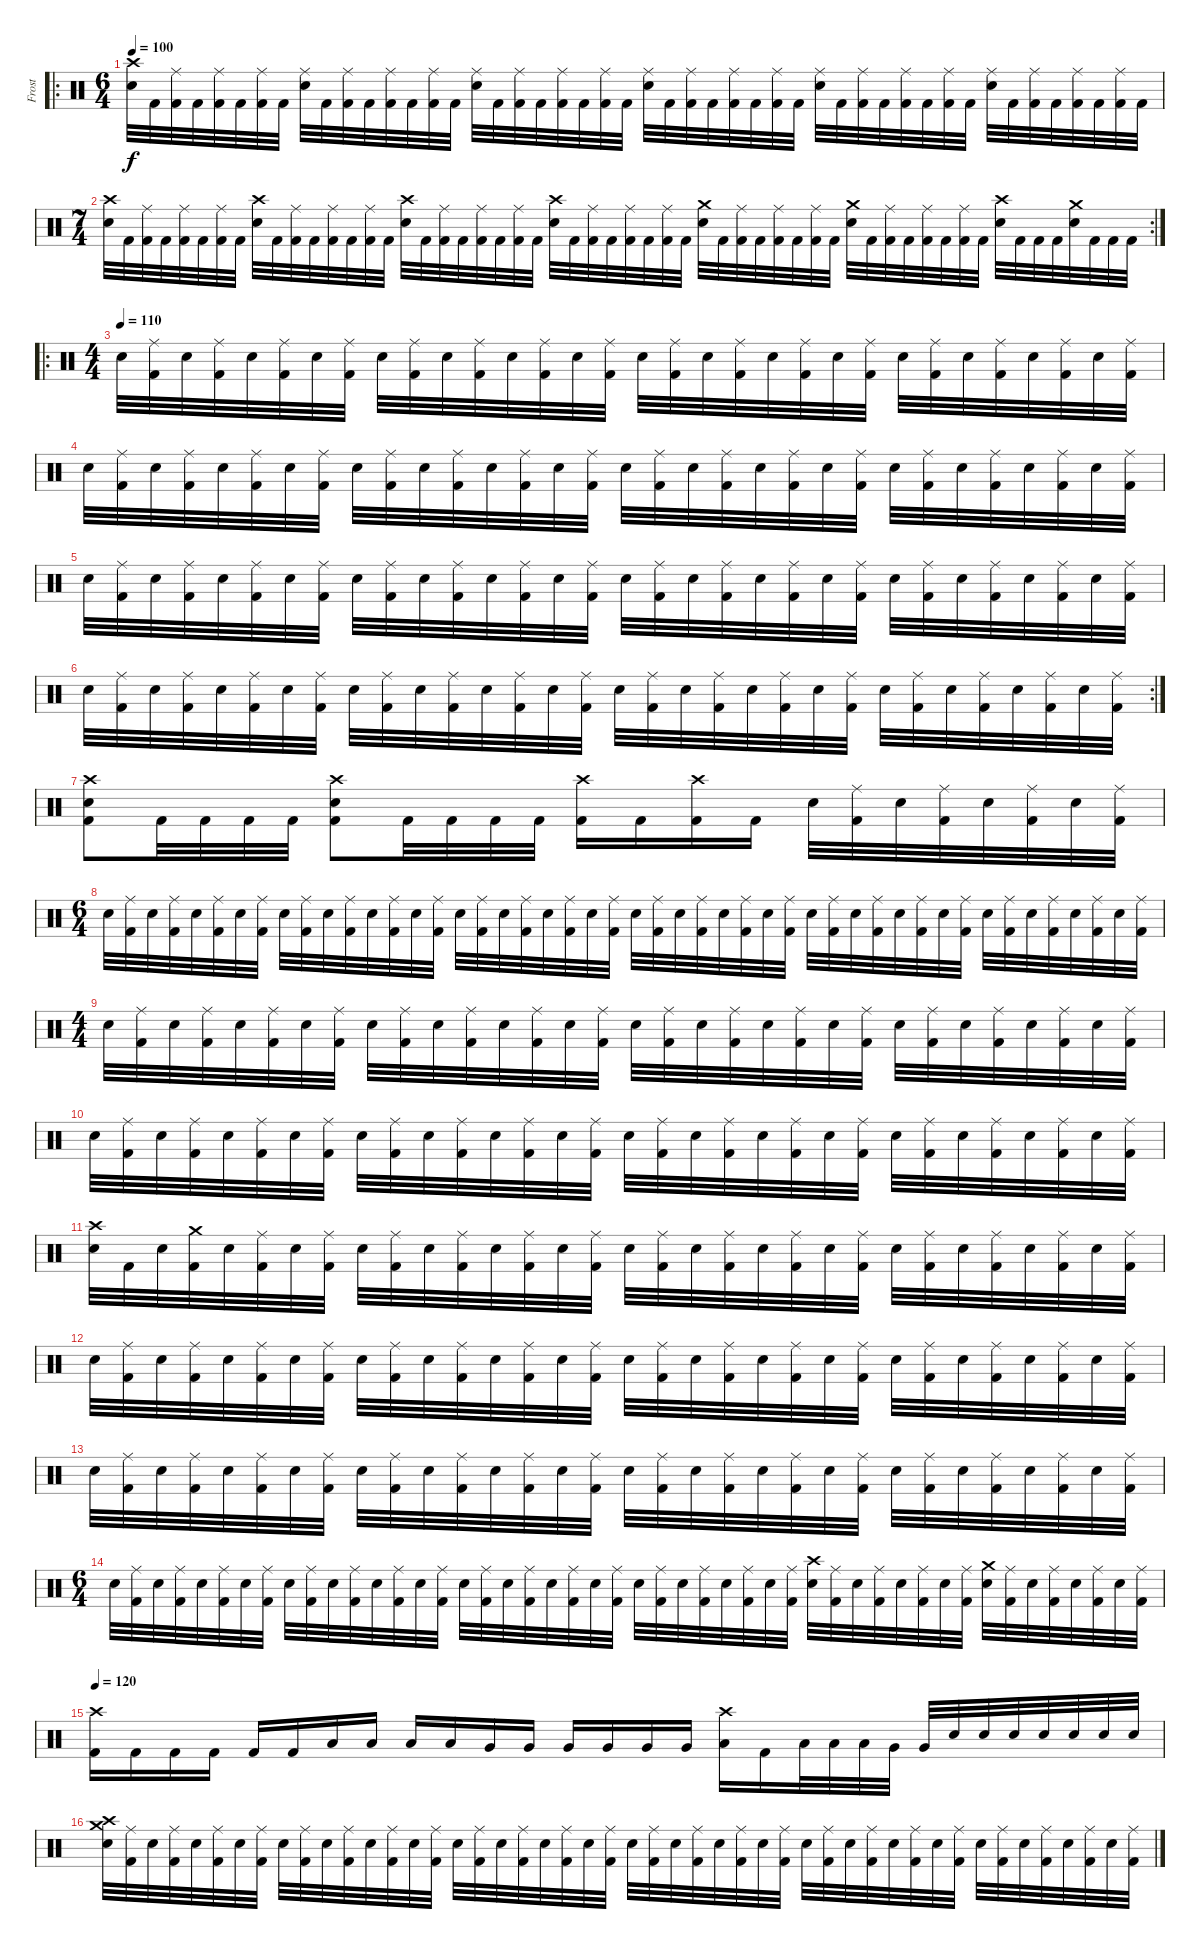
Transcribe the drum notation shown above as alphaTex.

\track ("Frost" "Frost") {instrument percussion}
\staff {score}
\articulation defaults
\ro
\ts (6 4)
\tempo 100
\clef neutral
\ks c
("Crash high (hit)" "Snare (hit) 2").32{dy f} "Kick (hit) 2".32 ("Ride (middle)" "Kick (hit) 2").32 "Kick (hit) 2".32 ("Ride (middle)" "Kick (hit) 2").32 "Kick (hit) 2".32 ("Ride (middle)" "Kick (hit) 2").32 "Kick (hit) 2".32 ("Ride (middle)" "Snare (hit) 2").32 "Kick (hit) 2".32 ("Ride (middle)" "Kick (hit) 2").32 "Kick (hit) 2".32 ("Ride (middle)" "Kick (hit) 2").32 "Kick (hit) 2".32 ("Ride (middle)" "Kick (hit) 2").32 "Kick (hit) 2".32 ("Ride (middle)" "Snare (hit) 2").32 "Kick (hit) 2".32 ("Ride (middle)" "Kick (hit) 2").32 "Kick (hit) 2".32 ("Ride (middle)" "Kick (hit) 2").32 "Kick (hit) 2".32 ("Ride (middle)" "Kick (hit) 2").32 "Kick (hit) 2".32 ("Ride (middle)" "Snare (hit) 2").32 "Kick (hit) 2".32 ("Ride (middle)" "Kick (hit) 2").32 "Kick (hit) 2".32 ("Ride (middle)" "Kick (hit) 2").32 "Kick (hit) 2".32 ("Ride (middle)" "Kick (hit) 2").32 "Kick (hit) 2".32 ("Ride (middle)" "Snare (hit) 2").32 "Kick (hit) 2".32 ("Ride (middle)" "Kick (hit) 2").32 "Kick (hit) 2".32 ("Ride (middle)" "Kick (hit) 2").32 "Kick (hit) 2".32 ("Ride (middle)" "Kick (hit) 2").32 "Kick (hit) 2".32 ("Ride (middle)" "Snare (hit) 2").32 "Kick (hit) 2".32 ("Ride (middle)" "Kick (hit) 2").32 "Kick (hit) 2".32 ("Ride (middle)" "Kick (hit) 2").32 "Kick (hit) 2".32 ("Ride (middle)" "Kick (hit) 2").32 "Kick (hit) 2".32 |
\rc 2
\ts (7 4)
("Crash high (hit)" "Snare (hit) 2").32 "Kick (hit) 2".32 ("Ride (middle)" "Kick (hit) 2").32 "Kick (hit) 2".32 ("Ride (middle)" "Kick (hit) 2").32 "Kick (hit) 2".32 ("Ride (middle)" "Kick (hit) 2").32 "Kick (hit) 2".32 ("Crash high (hit)" "Snare (hit) 2").32 "Kick (hit) 2".32 ("Ride (middle)" "Kick (hit) 2").32 "Kick (hit) 2".32 ("Ride (middle)" "Kick (hit) 2").32 "Kick (hit) 2".32 ("Ride (middle)" "Kick (hit) 2").32 "Kick (hit) 2".32 ("Crash high (hit)" "Snare (hit) 2").32 "Kick (hit) 2".32 ("Ride (middle)" "Kick (hit) 2").32 "Kick (hit) 2".32 ("Ride (middle)" "Kick (hit) 2").32 "Kick (hit) 2".32 ("Ride (middle)" "Kick (hit) 2").32 "Kick (hit) 2".32 ("Crash high (hit)" "Snare (hit) 2").32 "Kick (hit) 2".32 ("Ride (middle)" "Kick (hit) 2").32 "Kick (hit) 2".32 ("Ride (middle)" "Kick (hit) 2").32 "Kick (hit) 2".32 ("Ride (middle)" "Kick (hit) 2").32 "Kick (hit) 2".32 ("Crash medium (hit)" "Snare (hit) 2").32 "Kick (hit) 2".32 ("Ride (middle)" "Kick (hit) 2").32 "Kick (hit) 2".32 ("Ride (middle)" "Kick (hit) 2").32 "Kick (hit) 2".32 ("Ride (middle)" "Kick (hit) 2").32 "Kick (hit) 2".32 ("Crash medium (hit)" "Snare (hit) 2").32 "Kick (hit) 2".32 ("Ride (middle)" "Kick (hit) 2").32 "Kick (hit) 2".32 ("Ride (middle)" "Kick (hit) 2").32 "Kick (hit) 2".32 ("Ride (middle)" "Kick (hit) 2").32 "Kick (hit) 2".32 ("Crash high (hit)" "Snare (hit) 2").32 "Kick (hit) 2".32 "Kick (hit) 2".32 "Kick (hit) 2".32 ("Crash medium (hit)" "Snare (hit) 2").32 "Kick (hit) 2".32 "Kick (hit) 2".32 "Kick (hit) 2".32 |
\ro
\ts (4 4)
\tempo (110)
"Snare (hit) 2".32 ("Ride (middle)" "Kick (hit) 2").32 "Snare (hit) 2".32 ("Ride (middle)" "Kick (hit) 2").32 "Snare (hit) 2".32 ("Ride (middle)" "Kick (hit) 2").32 "Snare (hit) 2".32 ("Ride (middle)" "Kick (hit) 2").32 "Snare (hit) 2".32 ("Ride (middle)" "Kick (hit) 2").32 "Snare (hit) 2".32 ("Ride (middle)" "Kick (hit) 2").32 "Snare (hit) 2".32 ("Ride (middle)" "Kick (hit) 2").32 "Snare (hit) 2".32 ("Ride (middle)" "Kick (hit) 2").32 "Snare (hit) 2".32 ("Ride (middle)" "Kick (hit) 2").32 "Snare (hit) 2".32 ("Ride (middle)" "Kick (hit) 2").32 "Snare (hit) 2".32 ("Ride (middle)" "Kick (hit) 2").32 "Snare (hit) 2".32 ("Ride (middle)" "Kick (hit) 2").32 "Snare (hit) 2".32 ("Ride (middle)" "Kick (hit) 2").32 "Snare (hit) 2".32 ("Ride (middle)" "Kick (hit) 2").32 "Snare (hit) 2".32 ("Ride (middle)" "Kick (hit) 2").32 "Snare (hit) 2".32 ("Ride (middle)" "Kick (hit) 2").32 |
"Snare (hit) 2".32 ("Ride (middle)" "Kick (hit) 2").32 "Snare (hit) 2".32 ("Ride (middle)" "Kick (hit) 2").32 "Snare (hit) 2".32 ("Ride (middle)" "Kick (hit) 2").32 "Snare (hit) 2".32 ("Ride (middle)" "Kick (hit) 2").32 "Snare (hit) 2".32 ("Ride (middle)" "Kick (hit) 2").32 "Snare (hit) 2".32 ("Ride (middle)" "Kick (hit) 2").32 "Snare (hit) 2".32 ("Ride (middle)" "Kick (hit) 2").32 "Snare (hit) 2".32 ("Ride (middle)" "Kick (hit) 2").32 "Snare (hit) 2".32 ("Ride (middle)" "Kick (hit) 2").32 "Snare (hit) 2".32 ("Ride (middle)" "Kick (hit) 2").32 "Snare (hit) 2".32 ("Ride (middle)" "Kick (hit) 2").32 "Snare (hit) 2".32 ("Ride (middle)" "Kick (hit) 2").32 "Snare (hit) 2".32 ("Ride (middle)" "Kick (hit) 2").32 "Snare (hit) 2".32 ("Ride (middle)" "Kick (hit) 2").32 "Snare (hit) 2".32 ("Ride (middle)" "Kick (hit) 2").32 "Snare (hit) 2".32 ("Ride (middle)" "Kick (hit) 2").32 |
"Snare (hit) 2".32 ("Ride (middle)" "Kick (hit) 2").32 "Snare (hit) 2".32 ("Ride (middle)" "Kick (hit) 2").32 "Snare (hit) 2".32 ("Ride (middle)" "Kick (hit) 2").32 "Snare (hit) 2".32 ("Ride (middle)" "Kick (hit) 2").32 "Snare (hit) 2".32 ("Ride (middle)" "Kick (hit) 2").32 "Snare (hit) 2".32 ("Ride (middle)" "Kick (hit) 2").32 "Snare (hit) 2".32 ("Ride (middle)" "Kick (hit) 2").32 "Snare (hit) 2".32 ("Ride (middle)" "Kick (hit) 2").32 "Snare (hit) 2".32 ("Ride (middle)" "Kick (hit) 2").32 "Snare (hit) 2".32 ("Ride (middle)" "Kick (hit) 2").32 "Snare (hit) 2".32 ("Ride (middle)" "Kick (hit) 2").32 "Snare (hit) 2".32 ("Ride (middle)" "Kick (hit) 2").32 "Snare (hit) 2".32 ("Ride (middle)" "Kick (hit) 2").32 "Snare (hit) 2".32 ("Ride (middle)" "Kick (hit) 2").32 "Snare (hit) 2".32 ("Ride (middle)" "Kick (hit) 2").32 "Snare (hit) 2".32 ("Ride (middle)" "Kick (hit) 2").32 |
\rc 2 "Snare (hit) 2".32
("Ride (middle)" "Kick (hit) 2").32 "Snare (hit) 2".32 ("Ride (middle)" "Kick (hit) 2").32 "Snare (hit) 2".32 ("Ride (middle)" "Kick (hit) 2").32 "Snare (hit) 2".32 ("Ride (middle)" "Kick (hit) 2").32 "Snare (hit) 2".32 ("Ride (middle)" "Kick (hit) 2").32 "Snare (hit) 2".32 ("Ride (middle)" "Kick (hit) 2").32 "Snare (hit) 2".32 ("Ride (middle)" "Kick (hit) 2").32 "Snare (hit) 2".32 ("Ride (middle)" "Kick (hit) 2").32 "Snare (hit) 2".32 ("Ride (middle)" "Kick (hit) 2").32 "Snare (hit) 2".32 ("Ride (middle)" "Kick (hit) 2").32 "Snare (hit) 2".32 ("Ride (middle)" "Kick (hit) 2").32 "Snare (hit) 2".32 ("Ride (middle)" "Kick (hit) 2").32 "Snare (hit) 2".32 ("Ride (middle)" "Kick (hit) 2").32 "Snare (hit) 2".32 ("Ride (middle)" "Kick (hit) 2").32 "Snare (hit) 2".32 ("Ride (middle)" "Kick (hit) 2").32 "Snare (hit) 2".32 ("Ride (middle)" "Kick (hit) 2").32 |
("Crash high (hit)" "Snare (hit) 2" "Kick (hit) 2").8 "Kick (hit) 2".32 "Kick (hit) 2".32 "Kick (hit) 2".32 "Kick (hit) 2".32 ("Crash high (hit)" "Snare (hit) 2" "Kick (hit) 2").8 "Kick (hit) 2".32 "Kick (hit) 2".32 "Kick (hit) 2".32 "Kick (hit) 2".32 ("Crash high (hit)" "Kick (hit) 2").16 "Kick (hit) 2".16 ("Crash high (hit)" "Kick (hit) 2").16 "Kick (hit) 2".16 "Snare (hit) 2".32 ("Ride (middle)" "Kick (hit) 2").32 "Snare (hit) 2".32 ("Ride (middle)" "Kick (hit) 2").32 "Snare (hit) 2".32 ("Ride (middle)" "Kick (hit) 2").32 "Snare (hit) 2".32 ("Ride (middle)" "Kick (hit) 2").32 |
\ts (6 4)
"Snare (hit) 2".32 ("Ride (middle)" "Kick (hit) 2").32 "Snare (hit) 2".32 ("Ride (middle)" "Kick (hit) 2").32 "Snare (hit) 2".32 ("Ride (middle)" "Kick (hit) 2").32 "Snare (hit) 2".32 ("Ride (middle)" "Kick (hit) 2").32 "Snare (hit) 2".32 ("Ride (middle)" "Kick (hit) 2").32 "Snare (hit) 2".32 ("Ride (middle)" "Kick (hit) 2").32 "Snare (hit) 2".32 ("Ride (middle)" "Kick (hit) 2").32 "Snare (hit) 2".32 ("Ride (middle)" "Kick (hit) 2").32 "Snare (hit) 2".32 ("Ride (middle)" "Kick (hit) 2").32 "Snare (hit) 2".32 ("Ride (middle)" "Kick (hit) 2").32 "Snare (hit) 2".32 ("Ride (middle)" "Kick (hit) 2").32 "Snare (hit) 2".32 ("Ride (middle)" "Kick (hit) 2").32 "Snare (hit) 2".32 ("Ride (middle)" "Kick (hit) 2").32 "Snare (hit) 2".32 ("Ride (middle)" "Kick (hit) 2").32 "Snare (hit) 2".32 ("Ride (middle)" "Kick (hit) 2").32 "Snare (hit) 2".32 ("Ride (middle)" "Kick (hit) 2").32 "Snare (hit) 2".32 ("Ride (middle)" "Kick (hit) 2").32 "Snare (hit) 2".32 ("Ride (middle)" "Kick (hit) 2").32 "Snare (hit) 2".32 ("Ride (middle)" "Kick (hit) 2").32 "Snare (hit) 2".32 ("Ride (middle)" "Kick (hit) 2").32 "Snare (hit) 2".32 ("Ride (middle)" "Kick (hit) 2").32 "Snare (hit) 2".32 ("Ride (middle)" "Kick (hit) 2").32 "Snare (hit) 2".32 ("Ride (middle)" "Kick (hit) 2").32 "Snare (hit) 2".32 ("Ride (middle)" "Kick (hit) 2").32 |
\ts (4 4)
"Snare (hit) 2".32 ("Ride (middle)" "Kick (hit) 2").32 "Snare (hit) 2".32 ("Ride (middle)" "Kick (hit) 2").32 "Snare (hit) 2".32 ("Ride (middle)" "Kick (hit) 2").32 "Snare (hit) 2".32 ("Ride (middle)" "Kick (hit) 2").32 "Snare (hit) 2".32 ("Ride (middle)" "Kick (hit) 2").32 "Snare (hit) 2".32 ("Ride (middle)" "Kick (hit) 2").32 "Snare (hit) 2".32 ("Ride (middle)" "Kick (hit) 2").32 "Snare (hit) 2".32 ("Ride (middle)" "Kick (hit) 2").32 "Snare (hit) 2".32 ("Ride (middle)" "Kick (hit) 2").32 "Snare (hit) 2".32 ("Ride (middle)" "Kick (hit) 2").32 "Snare (hit) 2".32 ("Ride (middle)" "Kick (hit) 2").32 "Snare (hit) 2".32 ("Ride (middle)" "Kick (hit) 2").32 "Snare (hit) 2".32 ("Ride (middle)" "Kick (hit) 2").32 "Snare (hit) 2".32 ("Ride (middle)" "Kick (hit) 2").32 "Snare (hit) 2".32 ("Ride (middle)" "Kick (hit) 2").32 "Snare (hit) 2".32 ("Ride (middle)" "Kick (hit) 2").32 |
"Snare (hit) 2".32 ("Ride (middle)" "Kick (hit) 2").32 "Snare (hit) 2".32 ("Ride (middle)" "Kick (hit) 2").32 "Snare (hit) 2".32 ("Ride (middle)" "Kick (hit) 2").32 "Snare (hit) 2".32 ("Ride (middle)" "Kick (hit) 2").32 "Snare (hit) 2".32 ("Ride (middle)" "Kick (hit) 2").32 "Snare (hit) 2".32 ("Ride (middle)" "Kick (hit) 2").32 "Snare (hit) 2".32 ("Ride (middle)" "Kick (hit) 2").32 "Snare (hit) 2".32 ("Ride (middle)" "Kick (hit) 2").32 "Snare (hit) 2".32 ("Ride (middle)" "Kick (hit) 2").32 "Snare (hit) 2".32 ("Ride (middle)" "Kick (hit) 2").32 "Snare (hit) 2".32 ("Ride (middle)" "Kick (hit) 2").32 "Snare (hit) 2".32 ("Ride (middle)" "Kick (hit) 2").32 "Snare (hit) 2".32 ("Ride (middle)" "Kick (hit) 2").32 "Snare (hit) 2".32 ("Ride (middle)" "Kick (hit) 2").32 "Snare (hit) 2".32 ("Ride (middle)" "Kick (hit) 2").32 "Snare (hit) 2".32 ("Ride (middle)" "Kick (hit) 2").32 |
("Crash high (hit)" "Snare (hit) 2").32 "Kick (hit) 2".32 "Snare (hit) 2".32 ("Crash medium (hit)" "Kick (hit) 2").32 "Snare (hit) 2".32 ("Ride (middle)" "Kick (hit) 2").32 "Snare (hit) 2".32 ("Ride (middle)" "Kick (hit) 2").32 "Snare (hit) 2".32 ("Ride (middle)" "Kick (hit) 2").32 "Snare (hit) 2".32 ("Ride (middle)" "Kick (hit) 2").32 "Snare (hit) 2".32 ("Ride (middle)" "Kick (hit) 2").32 "Snare (hit) 2".32 ("Ride (middle)" "Kick (hit) 2").32 "Snare (hit) 2".32 ("Ride (middle)" "Kick (hit) 2").32 "Snare (hit) 2".32 ("Ride (middle)" "Kick (hit) 2").32 "Snare (hit) 2".32 ("Ride (middle)" "Kick (hit) 2").32 "Snare (hit) 2".32 ("Ride (middle)" "Kick (hit) 2").32 "Snare (hit) 2".32 ("Ride (middle)" "Kick (hit) 2").32 "Snare (hit) 2".32 ("Ride (middle)" "Kick (hit) 2").32 "Snare (hit) 2".32 ("Ride (middle)" "Kick (hit) 2").32 "Snare (hit) 2".32 ("Ride (middle)" "Kick (hit) 2").32 |
"Snare (hit) 2".32 ("Ride (middle)" "Kick (hit) 2").32 "Snare (hit) 2".32 ("Ride (middle)" "Kick (hit) 2").32 "Snare (hit) 2".32 ("Ride (middle)" "Kick (hit) 2").32 "Snare (hit) 2".32 ("Ride (middle)" "Kick (hit) 2").32 "Snare (hit) 2".32 ("Ride (middle)" "Kick (hit) 2").32 "Snare (hit) 2".32 ("Ride (middle)" "Kick (hit) 2").32 "Snare (hit) 2".32 ("Ride (middle)" "Kick (hit) 2").32 "Snare (hit) 2".32 ("Ride (middle)" "Kick (hit) 2").32 "Snare (hit) 2".32 ("Ride (middle)" "Kick (hit) 2").32 "Snare (hit) 2".32 ("Ride (middle)" "Kick (hit) 2").32 "Snare (hit) 2".32 ("Ride (middle)" "Kick (hit) 2").32 "Snare (hit) 2".32 ("Ride (middle)" "Kick (hit) 2").32 "Snare (hit) 2".32 ("Ride (middle)" "Kick (hit) 2").32 "Snare (hit) 2".32 ("Ride (middle)" "Kick (hit) 2").32 "Snare (hit) 2".32 ("Ride (middle)" "Kick (hit) 2").32 "Snare (hit) 2".32 ("Ride (middle)" "Kick (hit) 2").32 |
"Snare (hit) 2".32 ("Ride (middle)" "Kick (hit) 2").32 "Snare (hit) 2".32 ("Ride (middle)" "Kick (hit) 2").32 "Snare (hit) 2".32 ("Ride (middle)" "Kick (hit) 2").32 "Snare (hit) 2".32 ("Ride (middle)" "Kick (hit) 2").32 "Snare (hit) 2".32 ("Ride (middle)" "Kick (hit) 2").32 "Snare (hit) 2".32 ("Ride (middle)" "Kick (hit) 2").32 "Snare (hit) 2".32 ("Ride (middle)" "Kick (hit) 2").32 "Snare (hit) 2".32 ("Ride (middle)" "Kick (hit) 2").32 "Snare (hit) 2".32 ("Ride (middle)" "Kick (hit) 2").32 "Snare (hit) 2".32 ("Ride (middle)" "Kick (hit) 2").32 "Snare (hit) 2".32 ("Ride (middle)" "Kick (hit) 2").32 "Snare (hit) 2".32 ("Ride (middle)" "Kick (hit) 2").32 "Snare (hit) 2".32 ("Ride (middle)" "Kick (hit) 2").32 "Snare (hit) 2".32 ("Ride (middle)" "Kick (hit) 2").32 "Snare (hit) 2".32 ("Ride (middle)" "Kick (hit) 2").32 "Snare (hit) 2".32 ("Ride (middle)" "Kick (hit) 2").32 |
\ts (6 4)
"Snare (hit) 2".32 ("Ride (middle)" "Kick (hit) 2").32 "Snare (hit) 2".32 ("Ride (middle)" "Kick (hit) 2").32 "Snare (hit) 2".32 ("Ride (middle)" "Kick (hit) 2").32 "Snare (hit) 2".32 ("Ride (middle)" "Kick (hit) 2").32 "Snare (hit) 2".32 ("Ride (middle)" "Kick (hit) 2").32 "Snare (hit) 2".32 ("Ride (middle)" "Kick (hit) 2").32 "Snare (hit) 2".32 ("Ride (middle)" "Kick (hit) 2").32 "Snare (hit) 2".32 ("Ride (middle)" "Kick (hit) 2").32 "Snare (hit) 2".32 ("Ride (middle)" "Kick (hit) 2").32 "Snare (hit) 2".32 ("Ride (middle)" "Kick (hit) 2").32 "Snare (hit) 2".32 ("Ride (middle)" "Kick (hit) 2").32 "Snare (hit) 2".32 ("Ride (middle)" "Kick (hit) 2").32 "Snare (hit) 2".32 ("Ride (middle)" "Kick (hit) 2").32 "Snare (hit) 2".32 ("Ride (middle)" "Kick (hit) 2").32 "Snare (hit) 2".32 ("Ride (middle)" "Kick (hit) 2").32 "Snare (hit) 2".32 ("Ride (middle)" "Kick (hit) 2").32 ("Crash high (hit)" "Snare (hit) 2").32 ("Ride (middle)" "Kick (hit) 2").32 "Snare (hit) 2".32 ("Ride (middle)" "Kick (hit) 2").32 "Snare (hit) 2".32 ("Ride (middle)" "Kick (hit) 2").32 "Snare (hit) 2".32 ("Ride (middle)" "Kick (hit) 2").32 ("Crash medium (hit)" "Snare (hit) 2").32 ("Ride (middle)" "Kick (hit) 2").32 "Snare (hit) 2".32 ("Ride (middle)" "Kick (hit) 2").32 "Snare (hit) 2".32 ("Ride (middle)" "Kick (hit) 2").32 "Snare (hit) 2".32 ("Ride (middle)" "Kick (hit) 2").32 |
\tempo 120
("Crash high (hit)" "Kick (hit) 2").16 "Kick (hit) 2".16 "Kick (hit) 2".16 "Kick (hit) 2".16 "Kick (hit) 2".16 "Kick (hit) 2".16 "Low Tom (hit)".16 "Low Tom (hit)".16 "Low Tom (hit)".16 "Low Tom (hit)".16 "Very Low Tom (hit)".16 "Very Low Tom (hit)".16 "Very Low Tom (hit)".16 "Very Low Tom (hit)".16 "Very Low Tom (hit)".16 "Very Low Tom (hit)".16 ("Crash high (hit)" "Low Floor Tom (hit)").16 "Kick (hit) 2".16 "Low Tom (hit)".32 "Low Tom (hit)".32 "Low Tom (hit)".32 "Very Low Tom (hit)".32 "Very Low Tom (hit)".32 "Snare (hit) 2".32 "Snare (hit) 2".32 "Snare (hit) 2".32 "Snare (hit) 2".32 "Snare (hit) 2".32 "Snare (hit) 2".32 "Snare (hit) 2".32 |
("Crash high (hit)" "Crash medium (hit)" "Snare (hit) 2").32 ("Ride (middle)" "Kick (hit) 2").32 "Snare (hit) 2".32 ("Ride (middle)" "Kick (hit) 2").32 "Snare (hit) 2".32 ("Ride (middle)" "Kick (hit) 2").32 "Snare (hit) 2".32 ("Ride (middle)" "Kick (hit) 2").32 "Snare (hit) 2".32 ("Ride (middle)" "Kick (hit) 2").32 "Snare (hit) 2".32 ("Ride (middle)" "Kick (hit) 2").32 "Snare (hit) 2".32 ("Ride (middle)" "Kick (hit) 2").32 "Snare (hit) 2".32 ("Ride (middle)" "Kick (hit) 2").32 "Snare (hit) 2".32 ("Ride (middle)" "Kick (hit) 2").32 "Snare (hit) 2".32 ("Ride (middle)" "Kick (hit) 2").32 "Snare (hit) 2".32 ("Ride (middle)" "Kick (hit) 2").32 "Snare (hit) 2".32 ("Ride (middle)" "Kick (hit) 2").32 "Snare (hit) 2".32 ("Ride (middle)" "Kick (hit) 2").32 "Snare (hit) 2".32 ("Ride (middle)" "Kick (hit) 2").32 "Snare (hit) 2".32 ("Ride (middle)" "Kick (hit) 2").32 "Snare (hit) 2".32 ("Ride (middle)" "Kick (hit) 2").32 "Snare (hit) 2".32 ("Ride (middle)" "Kick (hit) 2").32 "Snare (hit) 2".32 ("Ride (middle)" "Kick (hit) 2").32 "Snare (hit) 2".32 ("Ride (middle)" "Kick (hit) 2").32 "Snare (hit) 2".32 ("Ride (middle)" "Kick (hit) 2").32 "Snare (hit) 2".32 ("Ride (middle)" "Kick (hit) 2").32 "Snare (hit) 2".32 ("Ride (middle)" "Kick (hit) 2").32 "Snare (hit) 2".32 ("Ride (middle)" "Kick (hit) 2").32 "Snare (hit) 2".32 ("Ride (middle)" "Kick (hit) 2").32
